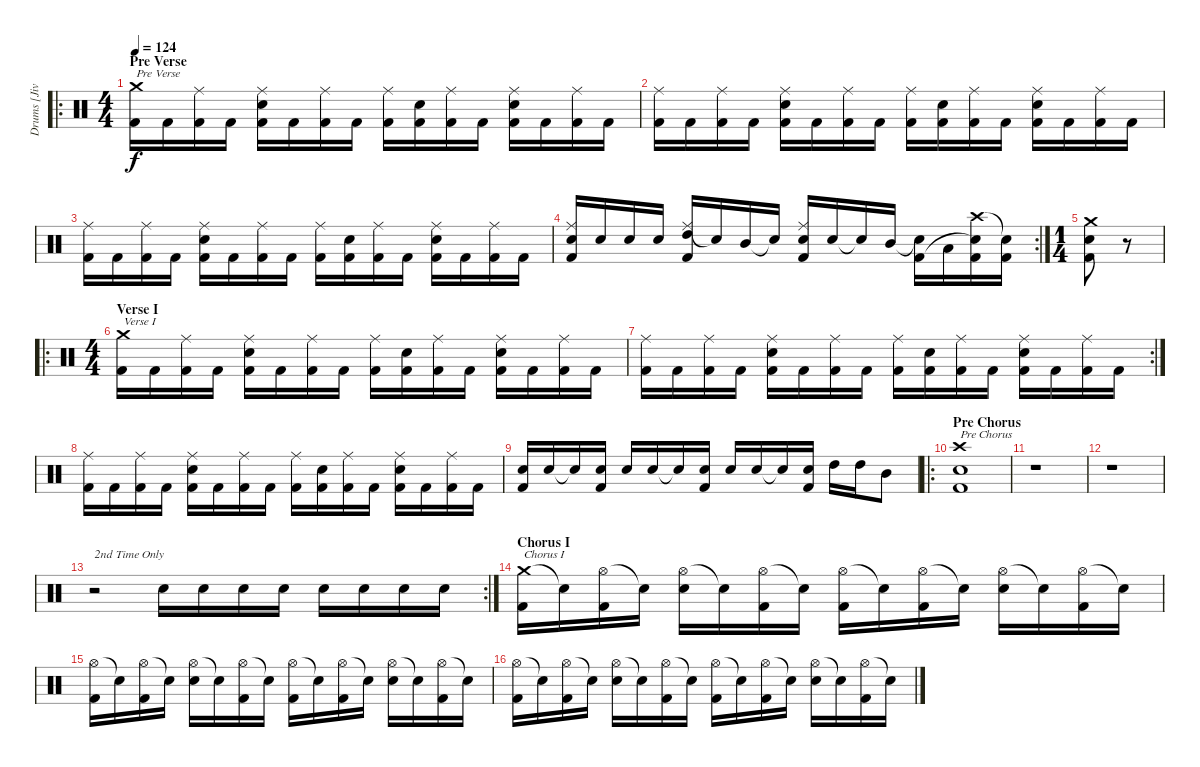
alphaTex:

\track ("Drums [Jivarp]" "Drums [Jiv") {instrument percussion}
\staff {score}
\articulation defaults
\ro
\ts (4 4)
\section ("" "Pre Verse")
\tempo 124
\clef neutral
\ks c
("Crash medium (hit)" "Kick (hit) 2").16{txt "Pre Verse" dy f} "Kick (hit) 2".16 ("Ride (middle)" "Kick (hit) 2").16 "Kick (hit) 2".16 ("Ride (middle)" "Electric Snare (hit)" "Kick (hit) 2").16 "Kick (hit) 2".16 ("Ride (middle)" "Kick (hit) 2").16 "Kick (hit) 2".16 ("Ride (middle)" "Kick (hit) 2").16 ("Electric Snare (hit)" "Kick (hit) 2").16 ("Ride (middle)" "Kick (hit) 2").16 "Kick (hit) 2".16 ("Ride (middle)" "Electric Snare (hit)" "Kick (hit) 2").16 "Kick (hit) 2".16 ("Ride (middle)" "Kick (hit) 2").16 "Kick (hit) 2".16 |
("Ride (middle)" "Kick (hit) 2").16 "Kick (hit) 2".16 ("Ride (middle)" "Kick (hit) 2").16 "Kick (hit) 2".16 ("Ride (middle)" "Electric Snare (hit)" "Kick (hit) 2").16 "Kick (hit) 2".16 ("Ride (middle)" "Kick (hit) 2").16 "Kick (hit) 2".16 ("Ride (middle)" "Kick (hit) 2").16 ("Electric Snare (hit)" "Kick (hit) 2").16 ("Ride (middle)" "Kick (hit) 2").16 "Kick (hit) 2".16 ("Ride (middle)" "Electric Snare (hit)" "Kick (hit) 2").16 "Kick (hit) 2".16 ("Ride (middle)" "Kick (hit) 2").16 "Kick (hit) 2".16 |
("Ride (middle)" "Kick (hit) 2").16 "Kick (hit) 2".16 ("Ride (middle)" "Kick (hit) 2").16 "Kick (hit) 2".16 ("Ride (middle)" "Electric Snare (hit)" "Kick (hit) 2").16 "Kick (hit) 2".16 ("Ride (middle)" "Kick (hit) 2").16 "Kick (hit) 2".16 ("Ride (middle)" "Kick (hit) 2").16 ("Electric Snare (hit)" "Kick (hit) 2").16 ("Ride (middle)" "Kick (hit) 2").16 "Kick (hit) 2".16 ("Ride (middle)" "Electric Snare (hit)" "Kick (hit) 2").16 "Kick (hit) 2".16 ("Ride (middle)" "Kick (hit) 2").16 "Kick (hit) 2".16 |
\rc 2
("Ride (middle)" "Electric Snare (hit)" "Kick (hit) 2").16 "Electric Snare (hit)".16 "Electric Snare (hit)".16 "Electric Snare (hit)".16 ("Ride (middle)" "High Tom (hit)" "Kick (hit) 2").16 "Snare (hit)"{t}.16 "Mid Tom (hit)".16 "Snare (hit)"{t}.16 ("Ride (middle)" "Electric Snare (hit)" "Kick (hit) 2").16 "Electric Snare (hit)".16 "Snare (hit)"{t}.16 "Mid Tom (hit)".16 ("Snare (hit)"{t} "Kick (hit) 2").16 "Low Tom (hit)".16 ("Crash high (hit)" "Snare (hit)"{t} "Kick (hit) 2").16 ("Snare (hit)"{t} "Kick (hit) 2").16 |
\ts (1 4)
("Crash medium (hit)" "Electric Snare (hit)" "Kick (hit) 2").8 r.8 |
\ro
\ts (4 4)
\section ("" "Verse I")
("Crash medium (hit)" "Kick (hit) 2").16{txt "Verse I"} "Kick (hit) 2".16 ("Ride (middle)" "Kick (hit) 2").16 "Kick (hit) 2".16 ("Ride (middle)" "Electric Snare (hit)" "Kick (hit) 2").16 "Kick (hit) 2".16 ("Ride (middle)" "Kick (hit) 2").16 "Kick (hit) 2".16 ("Ride (middle)" "Kick (hit) 2").16 ("Electric Snare (hit)" "Kick (hit) 2").16 ("Ride (middle)" "Kick (hit) 2").16 "Kick (hit) 2".16 ("Ride (middle)" "Electric Snare (hit)" "Kick (hit) 2").16 "Kick (hit) 2".16 ("Ride (middle)" "Kick (hit) 2").16 "Kick (hit) 2".16 |
\rc 2
("Ride (middle)" "Kick (hit) 2").16 "Kick (hit) 2".16 ("Ride (middle)" "Kick (hit) 2").16 "Kick (hit) 2".16 ("Ride (middle)" "Electric Snare (hit)" "Kick (hit) 2").16 "Kick (hit) 2".16 ("Ride (middle)" "Kick (hit) 2").16 "Kick (hit) 2".16 ("Ride (middle)" "Kick (hit) 2").16 ("Electric Snare (hit)" "Kick (hit) 2").16 ("Ride (middle)" "Kick (hit) 2").16 "Kick (hit) 2".16 ("Ride (middle)" "Electric Snare (hit)" "Kick (hit) 2").16 "Kick (hit) 2".16 ("Ride (middle)" "Kick (hit) 2").16 "Kick (hit) 2".16 |
("Ride (middle)" "Kick (hit) 2").16 "Kick (hit) 2".16 ("Ride (middle)" "Kick (hit) 2").16 "Kick (hit) 2".16 ("Ride (middle)" "Electric Snare (hit)" "Kick (hit) 2").16 "Kick (hit) 2".16 ("Ride (middle)" "Kick (hit) 2").16 "Kick (hit) 2".16 ("Ride (middle)" "Kick (hit) 2").16 ("Electric Snare (hit)" "Kick (hit) 2").16 ("Ride (middle)" "Kick (hit) 2").16 "Kick (hit) 2".16 ("Ride (middle)" "Electric Snare (hit)" "Kick (hit) 2").16 "Kick (hit) 2".16 ("Ride (middle)" "Kick (hit) 2").16 "Kick (hit) 2".16 |
("Electric Snare (hit)" "Kick (hit) 2").16 "Electric Snare (hit)".16 "Snare (hit)"{t}.16 ("Electric Snare (hit)" "Kick (hit) 2").16 "Electric Snare (hit)".16 "Electric Snare (hit)".16 "Snare (hit)"{t}.16 ("Electric Snare (hit)" "Kick (hit) 2").16 "Electric Snare (hit)".16 "Electric Snare (hit)".16 "Snare (hit)"{t}.16 ("Electric Snare (hit)" "Kick (hit) 2").16 "High Tom (hit)".16 "High Tom (hit)".16 "Mid Tom (hit)".8 |
\ro
\section ("" "Pre Chorus")
("Crash high (hit)" "Electric Snare (hit)" "Kick (hit) 2").1{txt "Pre Chorus"} |
r.1 |
r.1 |
\rc 2
r.2{txt "2nd Time Only" volume 0} "Electric Snare (hit)".16{volume 13} "Electric Snare (hit)".16 "Electric Snare (hit)".16 "Electric Snare (hit)".16 "Electric Snare (hit)".16 "Electric Snare (hit)".16 "Electric Snare (hit)".16 "Electric Snare (hit)".16 |
\section ("" "Chorus I")
("Crash medium (hit)" "Kick (hit) 2").16{txt "Chorus I"} "Snare (hit)"{t}.16 ("Hi-Hat (open)" "Kick (hit) 2").16 "Snare (hit)"{t}.16 ("Hi-Hat (open)" "Electric Snare (hit)").16 "Snare (hit)"{t}.16 ("Hi-Hat (open)" "Kick (hit) 2").16 "Snare (hit)"{t}.16 ("Hi-Hat (open)" "Kick (hit) 2").16 "Snare (hit)"{t}.16 ("Hi-Hat (open)" "Kick (hit) 2").16 "Snare (hit)"{t}.16 ("Hi-Hat (open)" "Electric Snare (hit)").16 "Snare (hit)"{t}.16 ("Hi-Hat (open)" "Kick (hit) 2").16 "Snare (hit)"{t}.16 |
("Hi-Hat (open)" "Kick (hit) 2").16 "Snare (hit)"{t}.16 ("Hi-Hat (open)" "Kick (hit) 2").16 "Snare (hit)"{t}.16 ("Hi-Hat (open)" "Electric Snare (hit)").16 "Snare (hit)"{t}.16 ("Hi-Hat (open)" "Kick (hit) 2").16 "Snare (hit)"{t}.16 ("Hi-Hat (open)" "Kick (hit) 2").16 "Snare (hit)"{t}.16 ("Hi-Hat (open)" "Kick (hit) 2").16 "Snare (hit)"{t}.16 ("Hi-Hat (open)" "Electric Snare (hit)").16 "Snare (hit)"{t}.16 ("Hi-Hat (open)" "Kick (hit) 2").16 "Snare (hit)"{t}.16 |
("Hi-Hat (open)" "Kick (hit) 2").16 "Snare (hit)"{t}.16 ("Hi-Hat (open)" "Kick (hit) 2").16 "Snare (hit)"{t}.16 ("Hi-Hat (open)" "Electric Snare (hit)").16 "Snare (hit)"{t}.16 ("Hi-Hat (open)" "Kick (hit) 2").16 "Snare (hit)"{t}.16 ("Hi-Hat (open)" "Kick (hit) 2").16 "Snare (hit)"{t}.16 ("Hi-Hat (open)" "Kick (hit) 2").16 "Snare (hit)"{t}.16 ("Hi-Hat (open)" "Electric Snare (hit)").16 "Snare (hit)"{t}.16 ("Hi-Hat (open)" "Kick (hit) 2").16 "Snare (hit)"{t}.16
